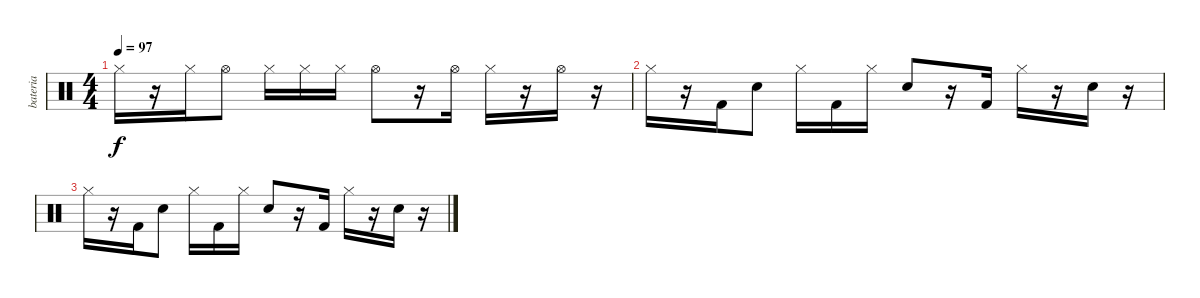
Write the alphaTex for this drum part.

\track ("bateria" "bateria") {instrument percussion}
\staff {score}
\articulation defaults
\ts (4 4)
\tempo 97
\clef neutral
\ks c "Hi-Hat (closed)".16{dy f}
r.16 "Hi-Hat (closed)".16 "Hi-Hat (open)".8 "Hi-Hat (closed)".16 "Hi-Hat (closed)".16 "Hi-Hat (closed)".16 "Hi-Hat (open)".8 r.16 "Hi-Hat (open)".16 "Hi-Hat (closed)".16 r.16 "Hi-Hat (open)".16 r.16 |
"Hi-Hat (closed)".16 r.16 "Kick (hit) 2".16 "Electric Snare (hit)".8 "Hi-Hat (closed)".16 "Kick (hit) 2".16 "Hi-Hat (closed)".16 "Electric Snare (hit)".8 r.16 "Kick (hit) 2".16 "Hi-Hat (closed)".16 r.16 "Electric Snare (hit)".16 r.16 |
"Hi-Hat (closed)".16 r.16 "Kick (hit) 2".16 "Electric Snare (hit)".8 "Hi-Hat (closed)".16 "Kick (hit) 2".16 "Hi-Hat (closed)".16 "Electric Snare (hit)".8 r.16 "Kick (hit) 2".16 "Hi-Hat (closed)".16 r.16 "Electric Snare (hit)".16 r.16
